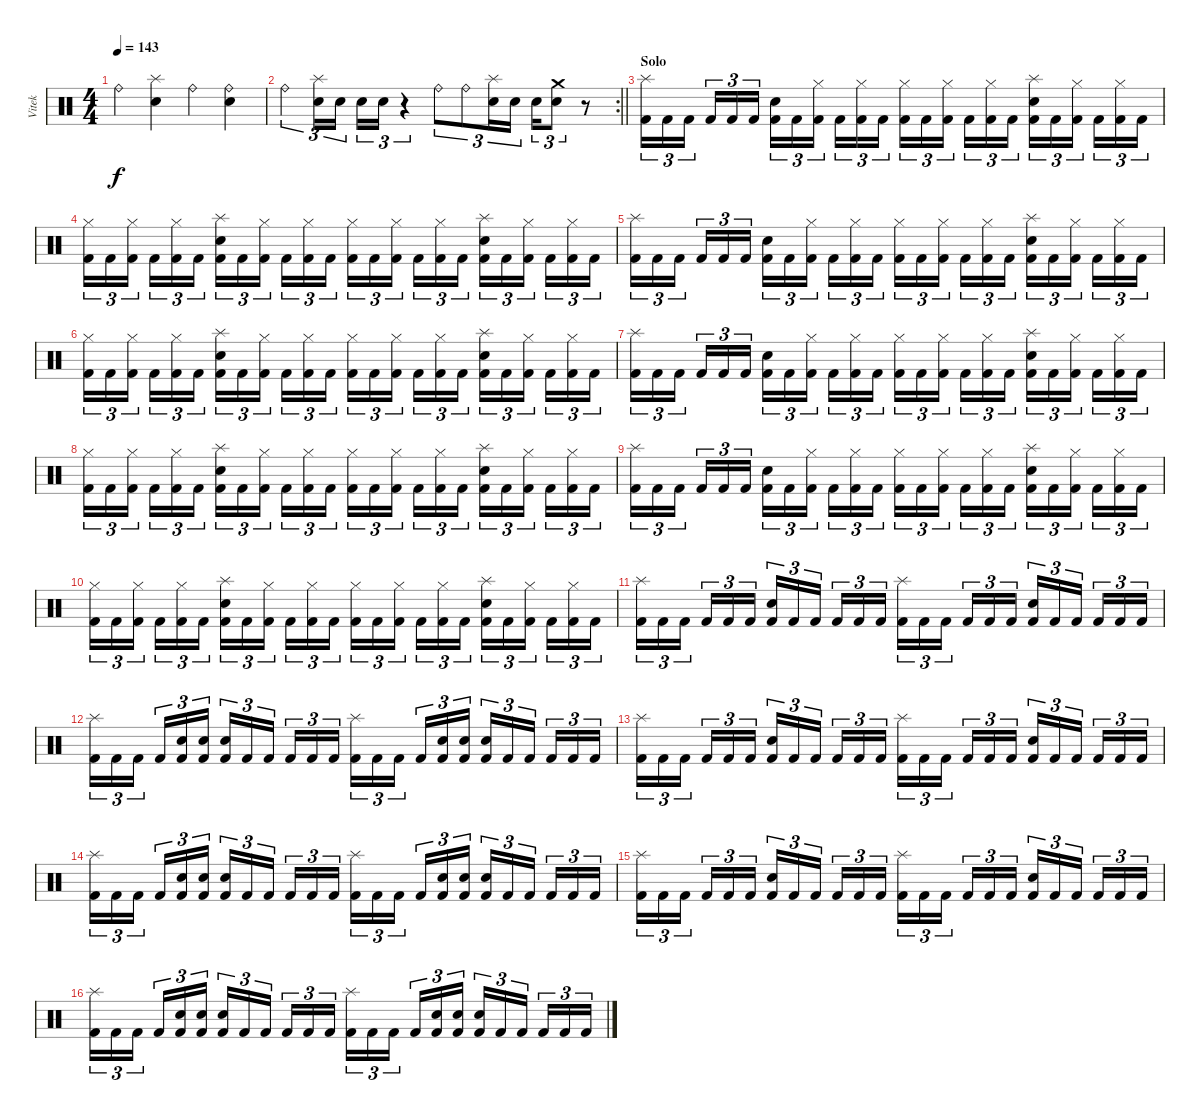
\track ("Vitek" "Vitek") {instrument percussion}
\staff {score}
\articulation defaults
\ts (4 4)
\tempo 143
\clef neutral
\ks c "Ride (bell)".4{dy f}
("Splash (hit)" "Electric Snare (hit)").4 "Ride (bell)".4 ("Ride (bell)" "Electric Snare (hit)").4 |
\rc 2
\barLineRight lightlight "Ride (bell)".4{tu (3 2)}
("Splash (hit)" "Electric Snare (hit)").16{tu (3 2)} "Electric Snare (hit)".16{tu (3 2)} "Electric Snare (hit)".16{tu (3 2)} "Electric Snare (hit)".16{tu (3 2)} r.4{tu (3 2)} "Ride (bell)".8{tu (3 2)} "Ride (bell)".8{tu (3 2)} ("Splash (hit)" "Electric Snare (hit)").16{tu (3 2)} "Electric Snare (hit)".16{tu (3 2)} "Electric Snare (hit)".16{tu (3 2)} ("Crash medium (hit)" "Electric Snare (hit)").8{tu (3 2)} r.8 |
\section ("" "Solo")
("Splash (hit)" "Kick (hit) 2").16{tu (3 2)} "Kick (hit) 2".16{tu (3 2)} "Kick (hit) 2".16{tu (3 2) beam splitsecondary} "Kick (hit) 2".16{tu (3 2)} "Kick (hit) 2".16{tu (3 2)} "Kick (hit) 2".16{tu (3 2)} ("Electric Snare (hit)" "Kick (hit) 2").16{tu (3 2)} "Kick (hit) 2".16{tu (3 2)} ("Hi-Hat (closed)" "Kick (hit) 2").16{tu (3 2) beam splitsecondary} "Kick (hit) 2".16{tu (3 2)} ("Hi-Hat (closed)" "Kick (hit) 2").16{tu (3 2)} "Kick (hit) 2".16{tu (3 2)} ("Hi-Hat (closed)" "Kick (hit) 2").16{tu (3 2)} "Kick (hit) 2".16{tu (3 2)} ("Hi-Hat (closed)" "Kick (hit) 2").16{tu (3 2) beam splitsecondary} "Kick (hit) 2".16{tu (3 2)} ("Hi-Hat (closed)" "Kick (hit) 2").16{tu (3 2)} "Kick (hit) 2".16{tu (3 2)} ("Splash (hit)" "Electric Snare (hit)" "Kick (hit) 2").16{tu (3 2)} "Kick (hit) 2".16{tu (3 2)} ("Hi-Hat (closed)" "Kick (hit) 2").16{tu (3 2) beam splitsecondary} "Kick (hit) 2".16{tu (3 2)} ("Hi-Hat (closed)" "Kick (hit) 2").16{tu (3 2)} "Kick (hit) 2".16{tu (3 2)} |
("Hi-Hat (closed)" "Kick (hit) 2").16{tu (3 2)} "Kick (hit) 2".16{tu (3 2)} ("Hi-Hat (closed)" "Kick (hit) 2").16{tu (3 2) beam splitsecondary} "Kick (hit) 2".16{tu (3 2)} ("Hi-Hat (closed)" "Kick (hit) 2").16{tu (3 2)} "Kick (hit) 2".16{tu (3 2)} ("Splash (hit)" "Electric Snare (hit)" "Kick (hit) 2").16{tu (3 2)} "Kick (hit) 2".16{tu (3 2)} ("Hi-Hat (closed)" "Kick (hit) 2").16{tu (3 2) beam splitsecondary} "Kick (hit) 2".16{tu (3 2)} ("Hi-Hat (closed)" "Kick (hit) 2").16{tu (3 2)} "Kick (hit) 2".16{tu (3 2)} ("Hi-Hat (closed)" "Kick (hit) 2").16{tu (3 2)} "Kick (hit) 2".16{tu (3 2)} ("Hi-Hat (closed)" "Kick (hit) 2").16{tu (3 2) beam splitsecondary} "Kick (hit) 2".16{tu (3 2)} ("Hi-Hat (closed)" "Kick (hit) 2").16{tu (3 2)} "Kick (hit) 2".16{tu (3 2)} ("Splash (hit)" "Electric Snare (hit)" "Kick (hit) 2").16{tu (3 2)} "Kick (hit) 2".16{tu (3 2)} ("Hi-Hat (closed)" "Kick (hit) 2").16{tu (3 2) beam splitsecondary} "Kick (hit) 2".16{tu (3 2)} ("Hi-Hat (closed)" "Kick (hit) 2").16{tu (3 2)} "Kick (hit) 2".16{tu (3 2)} |
("Splash (hit)" "Kick (hit) 2").16{tu (3 2)} "Kick (hit) 2".16{tu (3 2)} "Kick (hit) 2".16{tu (3 2) beam splitsecondary} "Kick (hit) 2".16{tu (3 2)} "Kick (hit) 2".16{tu (3 2)} "Kick (hit) 2".16{tu (3 2)} ("Electric Snare (hit)" "Kick (hit) 2").16{tu (3 2)} "Kick (hit) 2".16{tu (3 2)} ("Hi-Hat (closed)" "Kick (hit) 2").16{tu (3 2) beam splitsecondary} "Kick (hit) 2".16{tu (3 2)} ("Hi-Hat (closed)" "Kick (hit) 2").16{tu (3 2)} "Kick (hit) 2".16{tu (3 2)} ("Hi-Hat (closed)" "Kick (hit) 2").16{tu (3 2)} "Kick (hit) 2".16{tu (3 2)} ("Hi-Hat (closed)" "Kick (hit) 2").16{tu (3 2) beam splitsecondary} "Kick (hit) 2".16{tu (3 2)} ("Hi-Hat (closed)" "Kick (hit) 2").16{tu (3 2)} "Kick (hit) 2".16{tu (3 2)} ("Splash (hit)" "Electric Snare (hit)" "Kick (hit) 2").16{tu (3 2)} "Kick (hit) 2".16{tu (3 2)} ("Hi-Hat (closed)" "Kick (hit) 2").16{tu (3 2) beam splitsecondary} "Kick (hit) 2".16{tu (3 2)} ("Hi-Hat (closed)" "Kick (hit) 2").16{tu (3 2)} "Kick (hit) 2".16{tu (3 2)} |
("Hi-Hat (closed)" "Kick (hit) 2").16{tu (3 2)} "Kick (hit) 2".16{tu (3 2)} ("Hi-Hat (closed)" "Kick (hit) 2").16{tu (3 2) beam splitsecondary} "Kick (hit) 2".16{tu (3 2)} ("Hi-Hat (closed)" "Kick (hit) 2").16{tu (3 2)} "Kick (hit) 2".16{tu (3 2)} ("Splash (hit)" "Electric Snare (hit)" "Kick (hit) 2").16{tu (3 2)} "Kick (hit) 2".16{tu (3 2)} ("Hi-Hat (closed)" "Kick (hit) 2").16{tu (3 2) beam splitsecondary} "Kick (hit) 2".16{tu (3 2)} ("Hi-Hat (closed)" "Kick (hit) 2").16{tu (3 2)} "Kick (hit) 2".16{tu (3 2)} ("Hi-Hat (closed)" "Kick (hit) 2").16{tu (3 2)} "Kick (hit) 2".16{tu (3 2)} ("Hi-Hat (closed)" "Kick (hit) 2").16{tu (3 2) beam splitsecondary} "Kick (hit) 2".16{tu (3 2)} ("Hi-Hat (closed)" "Kick (hit) 2").16{tu (3 2)} "Kick (hit) 2".16{tu (3 2)} ("Splash (hit)" "Electric Snare (hit)" "Kick (hit) 2").16{tu (3 2)} "Kick (hit) 2".16{tu (3 2)} ("Hi-Hat (closed)" "Kick (hit) 2").16{tu (3 2) beam splitsecondary} "Kick (hit) 2".16{tu (3 2)} ("Hi-Hat (closed)" "Kick (hit) 2").16{tu (3 2)} "Kick (hit) 2".16{tu (3 2)} |
("Splash (hit)" "Kick (hit) 2").16{tu (3 2)} "Kick (hit) 2".16{tu (3 2)} "Kick (hit) 2".16{tu (3 2) beam splitsecondary} "Kick (hit) 2".16{tu (3 2)} "Kick (hit) 2".16{tu (3 2)} "Kick (hit) 2".16{tu (3 2)} ("Electric Snare (hit)" "Kick (hit) 2").16{tu (3 2)} "Kick (hit) 2".16{tu (3 2)} ("Hi-Hat (closed)" "Kick (hit) 2").16{tu (3 2) beam splitsecondary} "Kick (hit) 2".16{tu (3 2)} ("Hi-Hat (closed)" "Kick (hit) 2").16{tu (3 2)} "Kick (hit) 2".16{tu (3 2)} ("Hi-Hat (closed)" "Kick (hit) 2").16{tu (3 2)} "Kick (hit) 2".16{tu (3 2)} ("Hi-Hat (closed)" "Kick (hit) 2").16{tu (3 2) beam splitsecondary} "Kick (hit) 2".16{tu (3 2)} ("Hi-Hat (closed)" "Kick (hit) 2").16{tu (3 2)} "Kick (hit) 2".16{tu (3 2)} ("Splash (hit)" "Electric Snare (hit)" "Kick (hit) 2").16{tu (3 2)} "Kick (hit) 2".16{tu (3 2)} ("Hi-Hat (closed)" "Kick (hit) 2").16{tu (3 2) beam splitsecondary} "Kick (hit) 2".16{tu (3 2)} ("Hi-Hat (closed)" "Kick (hit) 2").16{tu (3 2)} "Kick (hit) 2".16{tu (3 2)} |
("Hi-Hat (closed)" "Kick (hit) 2").16{tu (3 2)} "Kick (hit) 2".16{tu (3 2)} ("Hi-Hat (closed)" "Kick (hit) 2").16{tu (3 2) beam splitsecondary} "Kick (hit) 2".16{tu (3 2)} ("Hi-Hat (closed)" "Kick (hit) 2").16{tu (3 2)} "Kick (hit) 2".16{tu (3 2)} ("Splash (hit)" "Electric Snare (hit)" "Kick (hit) 2").16{tu (3 2)} "Kick (hit) 2".16{tu (3 2)} ("Hi-Hat (closed)" "Kick (hit) 2").16{tu (3 2) beam splitsecondary} "Kick (hit) 2".16{tu (3 2)} ("Hi-Hat (closed)" "Kick (hit) 2").16{tu (3 2)} "Kick (hit) 2".16{tu (3 2)} ("Hi-Hat (closed)" "Kick (hit) 2").16{tu (3 2)} "Kick (hit) 2".16{tu (3 2)} ("Hi-Hat (closed)" "Kick (hit) 2").16{tu (3 2) beam splitsecondary} "Kick (hit) 2".16{tu (3 2)} ("Hi-Hat (closed)" "Kick (hit) 2").16{tu (3 2)} "Kick (hit) 2".16{tu (3 2)} ("Splash (hit)" "Electric Snare (hit)" "Kick (hit) 2").16{tu (3 2)} "Kick (hit) 2".16{tu (3 2)} ("Hi-Hat (closed)" "Kick (hit) 2").16{tu (3 2) beam splitsecondary} "Kick (hit) 2".16{tu (3 2)} ("Hi-Hat (closed)" "Kick (hit) 2").16{tu (3 2)} "Kick (hit) 2".16{tu (3 2)} |
("Splash (hit)" "Kick (hit) 2").16{tu (3 2)} "Kick (hit) 2".16{tu (3 2)} "Kick (hit) 2".16{tu (3 2) beam splitsecondary} "Kick (hit) 2".16{tu (3 2)} "Kick (hit) 2".16{tu (3 2)} "Kick (hit) 2".16{tu (3 2)} ("Electric Snare (hit)" "Kick (hit) 2").16{tu (3 2)} "Kick (hit) 2".16{tu (3 2)} ("Hi-Hat (closed)" "Kick (hit) 2").16{tu (3 2) beam splitsecondary} "Kick (hit) 2".16{tu (3 2)} ("Hi-Hat (closed)" "Kick (hit) 2").16{tu (3 2)} "Kick (hit) 2".16{tu (3 2)} ("Hi-Hat (closed)" "Kick (hit) 2").16{tu (3 2)} "Kick (hit) 2".16{tu (3 2)} ("Hi-Hat (closed)" "Kick (hit) 2").16{tu (3 2) beam splitsecondary} "Kick (hit) 2".16{tu (3 2)} ("Hi-Hat (closed)" "Kick (hit) 2").16{tu (3 2)} "Kick (hit) 2".16{tu (3 2)} ("Splash (hit)" "Electric Snare (hit)" "Kick (hit) 2").16{tu (3 2)} "Kick (hit) 2".16{tu (3 2)} ("Hi-Hat (closed)" "Kick (hit) 2").16{tu (3 2) beam splitsecondary} "Kick (hit) 2".16{tu (3 2)} ("Hi-Hat (closed)" "Kick (hit) 2").16{tu (3 2)} "Kick (hit) 2".16{tu (3 2)} |
("Hi-Hat (closed)" "Kick (hit) 2").16{tu (3 2)} "Kick (hit) 2".16{tu (3 2)} ("Hi-Hat (closed)" "Kick (hit) 2").16{tu (3 2) beam splitsecondary} "Kick (hit) 2".16{tu (3 2)} ("Hi-Hat (closed)" "Kick (hit) 2").16{tu (3 2)} "Kick (hit) 2".16{tu (3 2)} ("Splash (hit)" "Electric Snare (hit)" "Kick (hit) 2").16{tu (3 2)} "Kick (hit) 2".16{tu (3 2)} ("Hi-Hat (closed)" "Kick (hit) 2").16{tu (3 2) beam splitsecondary} "Kick (hit) 2".16{tu (3 2)} ("Hi-Hat (closed)" "Kick (hit) 2").16{tu (3 2)} "Kick (hit) 2".16{tu (3 2)} ("Hi-Hat (closed)" "Kick (hit) 2").16{tu (3 2)} "Kick (hit) 2".16{tu (3 2)} ("Hi-Hat (closed)" "Kick (hit) 2").16{tu (3 2) beam splitsecondary} "Kick (hit) 2".16{tu (3 2)} ("Hi-Hat (closed)" "Kick (hit) 2").16{tu (3 2)} "Kick (hit) 2".16{tu (3 2)} ("Splash (hit)" "Electric Snare (hit)" "Kick (hit) 2").16{tu (3 2)} "Kick (hit) 2".16{tu (3 2)} ("Hi-Hat (closed)" "Kick (hit) 2").16{tu (3 2) beam splitsecondary} "Kick (hit) 2".16{tu (3 2)} ("Hi-Hat (closed)" "Kick (hit) 2").16{tu (3 2)} "Kick (hit) 2".16{tu (3 2)} |
("Splash (hit)" "Kick (hit) 2").16{tu (3 2)} "Kick (hit) 2".16{tu (3 2)} "Kick (hit) 2".16{tu (3 2) beam splitsecondary} "Kick (hit) 2".16{tu (3 2)} "Kick (hit) 2".16{tu (3 2)} "Kick (hit) 2".16{tu (3 2)} ("Electric Snare (hit)" "Kick (hit) 2").16{tu (3 2)} "Kick (hit) 2".16{tu (3 2)} "Kick (hit) 2".16{tu (3 2) beam splitsecondary} "Kick (hit) 2".16{tu (3 2)} "Kick (hit) 2".16{tu (3 2)} "Kick (hit) 2".16{tu (3 2)} ("Splash (hit)" "Kick (hit) 2").16{tu (3 2)} "Kick (hit) 2".16{tu (3 2)} "Kick (hit) 2".16{tu (3 2) beam splitsecondary} "Kick (hit) 2".16{tu (3 2)} "Kick (hit) 2".16{tu (3 2)} "Kick (hit) 2".16{tu (3 2)} ("Electric Snare (hit)" "Kick (hit) 2").16{tu (3 2)} "Kick (hit) 2".16{tu (3 2)} "Kick (hit) 2".16{tu (3 2) beam splitsecondary} "Kick (hit) 2".16{tu (3 2)} "Kick (hit) 2".16{tu (3 2)} "Kick (hit) 2".16{tu (3 2)} |
("Splash (hit)" "Kick (hit) 2").16{tu (3 2)} "Kick (hit) 2".16{tu (3 2)} "Kick (hit) 2".16{tu (3 2) beam splitsecondary} "Kick (hit) 2".16{tu (3 2)} ("Electric Snare (hit)" "Kick (hit) 2").16{tu (3 2)} ("Electric Snare (hit)" "Kick (hit) 2").16{tu (3 2)} ("Electric Snare (hit)" "Kick (hit) 2").16{tu (3 2)} "Kick (hit) 2".16{tu (3 2)} "Kick (hit) 2".16{tu (3 2) beam splitsecondary} "Kick (hit) 2".16{tu (3 2)} "Kick (hit) 2".16{tu (3 2)} "Kick (hit) 2".16{tu (3 2)} ("Splash (hit)" "Kick (hit) 2").16{tu (3 2)} "Kick (hit) 2".16{tu (3 2)} "Kick (hit) 2".16{tu (3 2) beam splitsecondary} "Kick (hit) 2".16{tu (3 2)} ("Electric Snare (hit)" "Kick (hit) 2").16{tu (3 2)} ("Electric Snare (hit)" "Kick (hit) 2").16{tu (3 2)} ("Electric Snare (hit)" "Kick (hit) 2").16{tu (3 2)} "Kick (hit) 2".16{tu (3 2)} "Kick (hit) 2".16{tu (3 2) beam splitsecondary} "Kick (hit) 2".16{tu (3 2)} "Kick (hit) 2".16{tu (3 2)} "Kick (hit) 2".16{tu (3 2)} |
("Splash (hit)" "Kick (hit) 2").16{tu (3 2)} "Kick (hit) 2".16{tu (3 2)} "Kick (hit) 2".16{tu (3 2) beam splitsecondary} "Kick (hit) 2".16{tu (3 2)} "Kick (hit) 2".16{tu (3 2)} "Kick (hit) 2".16{tu (3 2)} ("Electric Snare (hit)" "Kick (hit) 2").16{tu (3 2)} "Kick (hit) 2".16{tu (3 2)} "Kick (hit) 2".16{tu (3 2) beam splitsecondary} "Kick (hit) 2".16{tu (3 2)} "Kick (hit) 2".16{tu (3 2)} "Kick (hit) 2".16{tu (3 2)} ("Splash (hit)" "Kick (hit) 2").16{tu (3 2)} "Kick (hit) 2".16{tu (3 2)} "Kick (hit) 2".16{tu (3 2) beam splitsecondary} "Kick (hit) 2".16{tu (3 2)} "Kick (hit) 2".16{tu (3 2)} "Kick (hit) 2".16{tu (3 2)} ("Electric Snare (hit)" "Kick (hit) 2").16{tu (3 2)} "Kick (hit) 2".16{tu (3 2)} "Kick (hit) 2".16{tu (3 2) beam splitsecondary} "Kick (hit) 2".16{tu (3 2)} "Kick (hit) 2".16{tu (3 2)} "Kick (hit) 2".16{tu (3 2)} |
("Splash (hit)" "Kick (hit) 2").16{tu (3 2)} "Kick (hit) 2".16{tu (3 2)} "Kick (hit) 2".16{tu (3 2) beam splitsecondary} "Kick (hit) 2".16{tu (3 2)} ("Electric Snare (hit)" "Kick (hit) 2").16{tu (3 2)} ("Electric Snare (hit)" "Kick (hit) 2").16{tu (3 2)} ("Electric Snare (hit)" "Kick (hit) 2").16{tu (3 2)} "Kick (hit) 2".16{tu (3 2)} "Kick (hit) 2".16{tu (3 2) beam splitsecondary} "Kick (hit) 2".16{tu (3 2)} "Kick (hit) 2".16{tu (3 2)} "Kick (hit) 2".16{tu (3 2)} ("Splash (hit)" "Kick (hit) 2").16{tu (3 2)} "Kick (hit) 2".16{tu (3 2)} "Kick (hit) 2".16{tu (3 2) beam splitsecondary} "Kick (hit) 2".16{tu (3 2)} ("Electric Snare (hit)" "Kick (hit) 2").16{tu (3 2)} ("Electric Snare (hit)" "Kick (hit) 2").16{tu (3 2)} ("Electric Snare (hit)" "Kick (hit) 2").16{tu (3 2)} "Kick (hit) 2".16{tu (3 2)} "Kick (hit) 2".16{tu (3 2) beam splitsecondary} "Kick (hit) 2".16{tu (3 2)} "Kick (hit) 2".16{tu (3 2)} "Kick (hit) 2".16{tu (3 2)} |
("Splash (hit)" "Kick (hit) 2").16{tu (3 2)} "Kick (hit) 2".16{tu (3 2)} "Kick (hit) 2".16{tu (3 2) beam splitsecondary} "Kick (hit) 2".16{tu (3 2)} "Kick (hit) 2".16{tu (3 2)} "Kick (hit) 2".16{tu (3 2)} ("Electric Snare (hit)" "Kick (hit) 2").16{tu (3 2)} "Kick (hit) 2".16{tu (3 2)} "Kick (hit) 2".16{tu (3 2) beam splitsecondary} "Kick (hit) 2".16{tu (3 2)} "Kick (hit) 2".16{tu (3 2)} "Kick (hit) 2".16{tu (3 2)} ("Splash (hit)" "Kick (hit) 2").16{tu (3 2)} "Kick (hit) 2".16{tu (3 2)} "Kick (hit) 2".16{tu (3 2) beam splitsecondary} "Kick (hit) 2".16{tu (3 2)} "Kick (hit) 2".16{tu (3 2)} "Kick (hit) 2".16{tu (3 2)} ("Electric Snare (hit)" "Kick (hit) 2").16{tu (3 2)} "Kick (hit) 2".16{tu (3 2)} "Kick (hit) 2".16{tu (3 2) beam splitsecondary} "Kick (hit) 2".16{tu (3 2)} "Kick (hit) 2".16{tu (3 2)} "Kick (hit) 2".16{tu (3 2)} |
("Splash (hit)" "Kick (hit) 2").16{tu (3 2)} "Kick (hit) 2".16{tu (3 2)} "Kick (hit) 2".16{tu (3 2) beam splitsecondary} "Kick (hit) 2".16{tu (3 2)} ("Electric Snare (hit)" "Kick (hit) 2").16{tu (3 2)} ("Electric Snare (hit)" "Kick (hit) 2").16{tu (3 2)} ("Electric Snare (hit)" "Kick (hit) 2").16{tu (3 2)} "Kick (hit) 2".16{tu (3 2)} "Kick (hit) 2".16{tu (3 2) beam splitsecondary} "Kick (hit) 2".16{tu (3 2)} "Kick (hit) 2".16{tu (3 2)} "Kick (hit) 2".16{tu (3 2)} ("Splash (hit)" "Kick (hit) 2").16{tu (3 2)} "Kick (hit) 2".16{tu (3 2)} "Kick (hit) 2".16{tu (3 2) beam splitsecondary} "Kick (hit) 2".16{tu (3 2)} ("Electric Snare (hit)" "Kick (hit) 2").16{tu (3 2)} ("Electric Snare (hit)" "Kick (hit) 2").16{tu (3 2)} ("Electric Snare (hit)" "Kick (hit) 2").16{tu (3 2)} "Kick (hit) 2".16{tu (3 2)} "Kick (hit) 2".16{tu (3 2) beam splitsecondary} "Kick (hit) 2".16{tu (3 2)} "Kick (hit) 2".16{tu (3 2)} "Kick (hit) 2".16{tu (3 2)}
